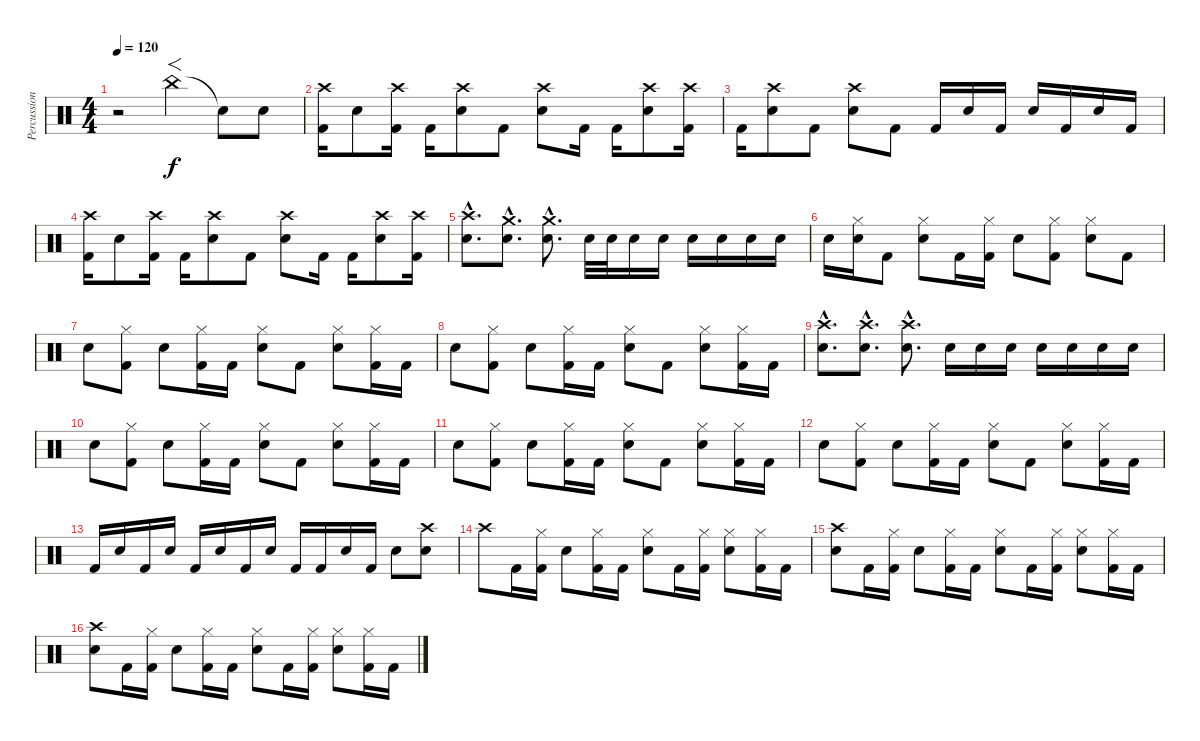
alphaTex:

\track ("Percussions" "Percussion") {instrument percussion}
\staff {score}
\articulation defaults
\ts (4 4)
\tempo 120
\clef neutral
\ks c
r.2{dy f} "China (hit)".4{f} "Snare (hit) 2"{t}.8 "Snare (hit) 2".8 |
("Kick (hit) 2" "Crash high (hit)").16 "Snare (hit) 2".8 ("Kick (hit) 2" "Crash high (hit)").16 "Kick (hit) 2".16 ("Snare (hit) 2" "Crash high (hit)").8 "Kick (hit) 2".8 ("Snare (hit) 2" "Crash high (hit)").8 "Kick (hit) 2".16 "Kick (hit) 2".16 ("Snare (hit) 2" "Crash high (hit)").8 ("Kick (hit) 2" "Crash high (hit)").16 |
"Kick (hit) 2".16 ("Snare (hit) 2" "Crash high (hit)").8 "Kick (hit) 2".8 ("Snare (hit) 2" "Crash high (hit)").8 "Kick (hit) 2".8 "Kick (hit) 2".16 "Snare (hit) 2".16 "Kick (hit) 2".16 "Snare (hit) 2".16 "Kick (hit) 2".16 "Snare (hit) 2".16 "Kick (hit) 2".16 |
("Kick (hit) 2" "Crash high (hit)").16 "Snare (hit) 2".8 ("Kick (hit) 2" "Crash high (hit)").16 "Kick (hit) 2".16 ("Snare (hit) 2" "Crash high (hit)").8 "Kick (hit) 2".8 ("Snare (hit) 2" "Crash high (hit)").8 "Kick (hit) 2".16 "Kick (hit) 2".16 ("Snare (hit) 2" "Crash high (hit)").8 ("Kick (hit) 2" "Crash high (hit)").16 |
("Snare (hit) 2"{hac} "Crash high (hit)"{hac}).8{d} ("Snare (hit) 2"{hac} "Crash medium (hit)"{hac}).8{d} ("Snare (hit) 2"{hac} "Crash medium (hit)"{hac}).8{d} "Snare (hit) 2".32 "Snare (hit) 2".32 "Snare (hit) 2".16 "Snare (hit) 2".16 "Snare (hit) 2".16 "Snare (hit) 2".16 "Snare (hit) 2".16 "Snare (hit) 2".16 |
"Snare (hit) 2".16 ("Hi-Hat (closed)" "Snare (hit) 2").16 "Kick (hit) 2".8 ("Hi-Hat (closed)" "Snare (hit) 2").8 "Kick (hit) 2".16 ("Hi-Hat (closed)" "Kick (hit) 2").16 "Snare (hit) 2".8 ("Hi-Hat (closed)" "Kick (hit) 2").8 ("Hi-Hat (closed)" "Snare (hit) 2").8 "Kick (hit) 2".8 |
"Snare (hit) 2".8 ("Hi-Hat (closed)" "Kick (hit) 2").8 "Snare (hit) 2".8 ("Hi-Hat (closed)" "Kick (hit) 2").16 "Kick (hit) 2".16 ("Hi-Hat (closed)" "Snare (hit) 2").8 "Kick (hit) 2".8 ("Hi-Hat (closed)" "Snare (hit) 2").8 ("Hi-Hat (closed)" "Kick (hit) 2").16 "Kick (hit) 2".16 |
"Snare (hit) 2".8 ("Hi-Hat (closed)" "Kick (hit) 2").8 "Snare (hit) 2".8 ("Hi-Hat (closed)" "Kick (hit) 2").16 "Kick (hit) 2".16 ("Hi-Hat (closed)" "Snare (hit) 2").8 "Kick (hit) 2".8 ("Hi-Hat (closed)" "Snare (hit) 2").8 ("Hi-Hat (closed)" "Kick (hit) 2").16 "Kick (hit) 2".16 |
("Crash high (hit)"{hac} "Snare (hit) 2"{hac}).8{d} ("Crash high (hit)"{hac} "Snare (hit) 2"{hac}).8{d} ("Crash high (hit)"{hac} "Snare (hit) 2"{hac}).8{d} "Snare (hit) 2".16 "Snare (hit) 2".16 "Snare (hit) 2".16 "Snare (hit) 2".16 "Snare (hit) 2".16 "Snare (hit) 2".16 "Snare (hit) 2".16 |
"Snare (hit) 2".8 ("Hi-Hat (closed)" "Kick (hit) 2").8 "Snare (hit) 2".8 ("Hi-Hat (closed)" "Kick (hit) 2").16 "Kick (hit) 2".16 ("Hi-Hat (closed)" "Snare (hit) 2").8 "Kick (hit) 2".8 ("Hi-Hat (closed)" "Snare (hit) 2").8 ("Hi-Hat (closed)" "Kick (hit) 2").16 "Kick (hit) 2".16 |
"Snare (hit) 2".8 ("Hi-Hat (closed)" "Kick (hit) 2").8 "Snare (hit) 2".8 ("Hi-Hat (closed)" "Kick (hit) 2").16 "Kick (hit) 2".16 ("Hi-Hat (closed)" "Snare (hit) 2").8 "Kick (hit) 2".8 ("Hi-Hat (closed)" "Snare (hit) 2").8 ("Hi-Hat (closed)" "Kick (hit) 2").16 "Kick (hit) 2".16 |
"Snare (hit) 2".8 ("Hi-Hat (closed)" "Kick (hit) 2").8 "Snare (hit) 2".8 ("Hi-Hat (closed)" "Kick (hit) 2").16 "Kick (hit) 2".16 ("Hi-Hat (closed)" "Snare (hit) 2").8 "Kick (hit) 2".8 ("Hi-Hat (closed)" "Snare (hit) 2").8 ("Hi-Hat (closed)" "Kick (hit) 2").16 "Kick (hit) 2".16 |
"Kick (hit) 2".16 "Snare (hit) 2".16 "Kick (hit) 2".16 "Snare (hit) 2".16 "Kick (hit) 2".16 "Snare (hit) 2".16 "Kick (hit) 2".16 "Snare (hit) 2".16 "Kick (hit) 2".16 "Kick (hit) 2".16 "Snare (hit) 2".16 "Kick (hit) 2".16 "Snare (hit) 2".8 ("Crash high (hit)" "Snare (hit) 2").8 |
"Crash high (hit)".8 "Kick (hit) 2".16 ("Hi-Hat (closed)" "Kick (hit) 2").16 "Snare (hit) 2".8 ("Hi-Hat (closed)" "Kick (hit) 2").16 "Kick (hit) 2".16 ("Hi-Hat (closed)" "Snare (hit) 2").8 "Kick (hit) 2".16 ("Hi-Hat (closed)" "Kick (hit) 2").16 ("Hi-Hat (closed)" "Snare (hit) 2").8 ("Hi-Hat (closed)" "Kick (hit) 2").16 "Kick (hit) 2".16 |
("Crash high (hit)" "Snare (hit) 2").8 "Kick (hit) 2".16 ("Hi-Hat (closed)" "Kick (hit) 2").16 "Snare (hit) 2".8 ("Hi-Hat (closed)" "Kick (hit) 2").16 "Kick (hit) 2".16 ("Hi-Hat (closed)" "Snare (hit) 2").8 "Kick (hit) 2".16 ("Hi-Hat (closed)" "Kick (hit) 2").16 ("Hi-Hat (closed)" "Snare (hit) 2").8 ("Hi-Hat (closed)" "Kick (hit) 2").16 "Kick (hit) 2".16 |
("Crash high (hit)" "Snare (hit) 2").8 "Kick (hit) 2".16 ("Hi-Hat (closed)" "Kick (hit) 2").16 "Snare (hit) 2".8 ("Hi-Hat (closed)" "Kick (hit) 2").16 "Kick (hit) 2".16 ("Hi-Hat (closed)" "Snare (hit) 2").8 "Kick (hit) 2".16 ("Hi-Hat (closed)" "Kick (hit) 2").16 ("Hi-Hat (closed)" "Snare (hit) 2").8 ("Hi-Hat (closed)" "Kick (hit) 2").16 "Kick (hit) 2".16
